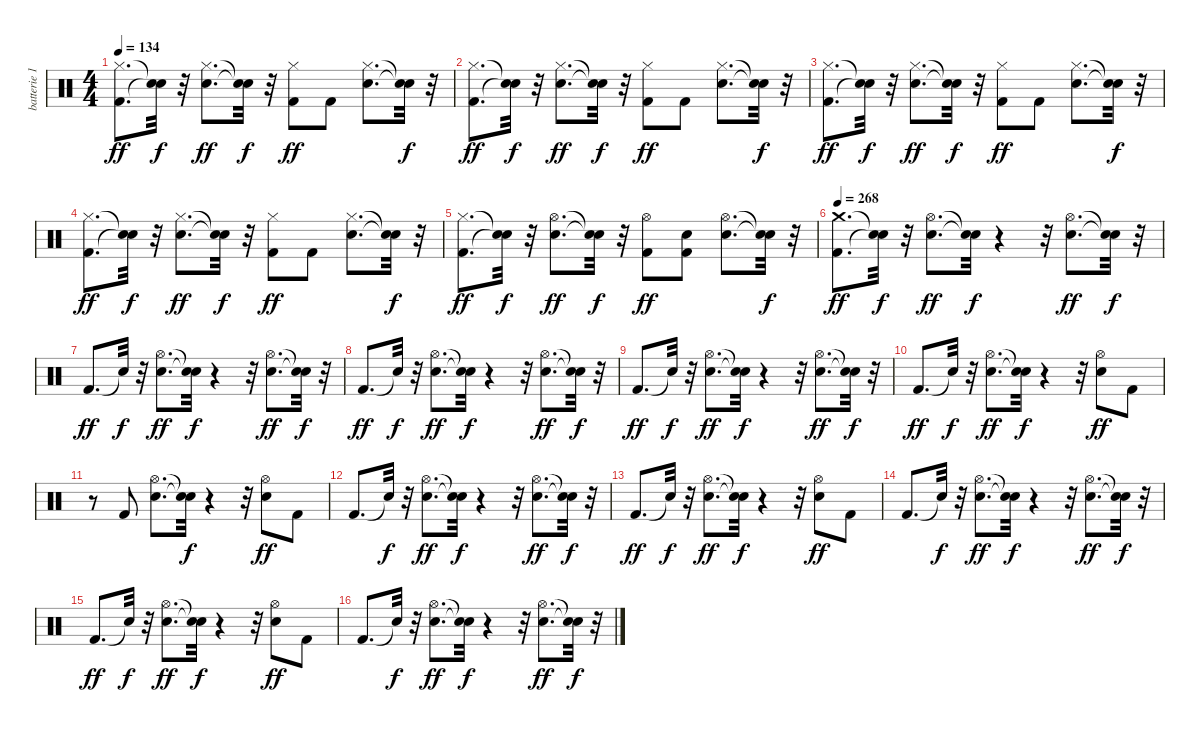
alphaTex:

\track ("batterie 1" "batterie 1") {instrument percussion}
\staff {score}
\articulation defaults
\ts (4 4)
\tempo 134
\clef neutral
\ks c
("Kick (hit) 2" "Hi-Hat (closed)").8{d dy ff} ("Snare (hit)"{t} "Snare (hit)"{t}).32{dy f} r.32 ("Electric Snare (hit)" "Hi-Hat (closed)").8{d dy ff} ("Snare (hit)"{t} "Snare (hit)"{t}).32{dy f} r.32 ("Kick (hit) 2" "Hi-Hat (closed)").8{dy ff} "Kick (hit) 2".8 ("Electric Snare (hit)" "Hi-Hat (closed)").8{d} ("Snare (hit)"{t} "Snare (hit)"{t}).32{dy f} r.32 |
("Kick (hit) 2" "Hi-Hat (closed)").8{d dy ff} ("Snare (hit)"{t} "Snare (hit)"{t}).32{dy f} r.32 ("Electric Snare (hit)" "Hi-Hat (closed)").8{d dy ff} ("Snare (hit)"{t} "Snare (hit)"{t}).32{dy f} r.32 ("Kick (hit) 2" "Hi-Hat (closed)").8{dy ff} "Kick (hit) 2".8 ("Electric Snare (hit)" "Hi-Hat (closed)").8{d} ("Snare (hit)"{t} "Snare (hit)"{t}).32{dy f} r.32 |
("Kick (hit) 2" "Hi-Hat (closed)").8{d dy ff} ("Snare (hit)"{t} "Snare (hit)"{t}).32{dy f} r.32 ("Electric Snare (hit)" "Hi-Hat (closed)").8{d dy ff} ("Snare (hit)"{t} "Snare (hit)"{t}).32{dy f} r.32 ("Kick (hit) 2" "Hi-Hat (closed)").8{dy ff} "Kick (hit) 2".8 ("Electric Snare (hit)" "Hi-Hat (closed)").8{d} ("Snare (hit)"{t} "Snare (hit)"{t}).32{dy f} r.32 |
("Kick (hit) 2" "Hi-Hat (closed)").8{d dy ff} ("Snare (hit)"{t} "Snare (hit)"{t}).32{dy f} r.32 ("Electric Snare (hit)" "Hi-Hat (closed)").8{d dy ff} ("Snare (hit)"{t} "Snare (hit)"{t}).32{dy f} r.32 ("Kick (hit) 2" "Hi-Hat (closed)").8{dy ff} "Kick (hit) 2".8 ("Electric Snare (hit)" "Hi-Hat (closed)").8{d} ("Snare (hit)"{t} "Snare (hit)"{t}).32{dy f} r.32 |
("Kick (hit) 2" "Hi-Hat (closed)").8{d dy ff} ("Snare (hit)"{t} "Snare (hit)"{t}).32{dy f} r.32 ("Electric Snare (hit)" "Hi-Hat (open)").8{d dy ff} ("Snare (hit)"{t} "Snare (hit)"{t}).32{dy f} r.32 ("Kick (hit) 2" "Hi-Hat (open)").8{dy ff} ("Kick (hit) 2" "Electric Snare (hit)").8 ("Electric Snare (hit)" "Hi-Hat (open)").8{d} ("Snare (hit)"{t} "Snare (hit)"{t}).32{dy f} r.32 |
\tempo 268
("Kick (hit) 2" "Crash medium (hit)").8{d dy ff} ("Snare (hit)"{t} "Snare (hit)"{t}).32{dy f} r.32 ("Electric Snare (hit)" "Hi-Hat (open)").8{d dy ff} ("Snare (hit)"{t} "Snare (hit)"{t}).32{dy f} r.4 r.32 ("Electric Snare (hit)" "Hi-Hat (open)").8{d dy ff} ("Snare (hit)"{t} "Snare (hit)"{t}).32{dy f} r.32 |
"Kick (hit) 2".8{d dy ff} "Snare (hit)"{t}.32{dy f} r.32 ("Electric Snare (hit)" "Hi-Hat (open)").8{d dy ff} ("Snare (hit)"{t} "Snare (hit)"{t}).32{dy f} r.4 r.32 ("Electric Snare (hit)" "Hi-Hat (open)").8{d dy ff} ("Snare (hit)"{t} "Snare (hit)"{t}).32{dy f} r.32 |
"Kick (hit) 2".8{d dy ff} "Snare (hit)"{t}.32{dy f} r.32 ("Electric Snare (hit)" "Hi-Hat (open)").8{d dy ff} ("Snare (hit)"{t} "Snare (hit)"{t}).32{dy f} r.4 r.32 ("Electric Snare (hit)" "Hi-Hat (open)").8{d dy ff} ("Snare (hit)"{t} "Snare (hit)"{t}).32{dy f} r.32 |
"Kick (hit) 2".8{d dy ff} "Snare (hit)"{t}.32{dy f} r.32 ("Electric Snare (hit)" "Hi-Hat (open)").8{d dy ff} ("Snare (hit)"{t} "Snare (hit)"{t}).32{dy f} r.4 r.32 ("Electric Snare (hit)" "Hi-Hat (open)").8{d dy ff} ("Snare (hit)"{t} "Snare (hit)"{t}).32{dy f} r.32 |
"Kick (hit) 2".8{d dy ff} "Snare (hit)"{t}.32{dy f} r.32 ("Electric Snare (hit)" "Hi-Hat (open)").8{d dy ff} ("Snare (hit)"{t} "Snare (hit)"{t}).32{dy f} r.4 r.32 ("Electric Snare (hit)" "Hi-Hat (open)").8{dy ff} "Kick (hit) 2".8 |
r.8 "Kick (hit) 2".8 ("Electric Snare (hit)" "Hi-Hat (open)").8{d} ("Snare (hit)"{t} "Snare (hit)"{t}).32{dy f} r.4 r.32 ("Electric Snare (hit)" "Hi-Hat (open)").8{dy ff} "Kick (hit) 2".8 |
"Kick (hit) 2".8{d} "Snare (hit)"{t}.32{dy f} r.32 ("Electric Snare (hit)" "Hi-Hat (open)").8{d dy ff} ("Snare (hit)"{t} "Snare (hit)"{t}).32{dy f} r.4 r.32 ("Electric Snare (hit)" "Hi-Hat (open)").8{d dy ff} ("Snare (hit)"{t} "Snare (hit)"{t}).32{dy f} r.32 |
"Kick (hit) 2".8{d dy ff} "Snare (hit)"{t}.32{dy f} r.32 ("Electric Snare (hit)" "Hi-Hat (open)").8{d dy ff} ("Snare (hit)"{t} "Snare (hit)"{t}).32{dy f} r.4 r.32 ("Electric Snare (hit)" "Hi-Hat (open)").8{dy ff} "Kick (hit) 2".8 |
"Kick (hit) 2".8{d} "Snare (hit)"{t}.32{dy f} r.32 ("Electric Snare (hit)" "Hi-Hat (open)").8{d dy ff} ("Snare (hit)"{t} "Snare (hit)"{t}).32{dy f} r.4 r.32 ("Electric Snare (hit)" "Hi-Hat (open)").8{d dy ff} ("Snare (hit)"{t} "Snare (hit)"{t}).32{dy f} r.32 |
"Kick (hit) 2".8{d dy ff} "Snare (hit)"{t}.32{dy f} r.32 ("Electric Snare (hit)" "Hi-Hat (open)").8{d dy ff} ("Snare (hit)"{t} "Snare (hit)"{t}).32{dy f} r.4 r.32 ("Electric Snare (hit)" "Hi-Hat (open)").8{dy ff} "Kick (hit) 2".8 |
"Kick (hit) 2".8{d} "Snare (hit)"{t}.32{dy f} r.32 ("Electric Snare (hit)" "Hi-Hat (open)").8{d dy ff} ("Snare (hit)"{t} "Snare (hit)"{t}).32{dy f} r.4 r.32 ("Electric Snare (hit)" "Hi-Hat (open)").8{d dy ff} ("Snare (hit)"{t} "Snare (hit)"{t}).32{dy f} r.32
